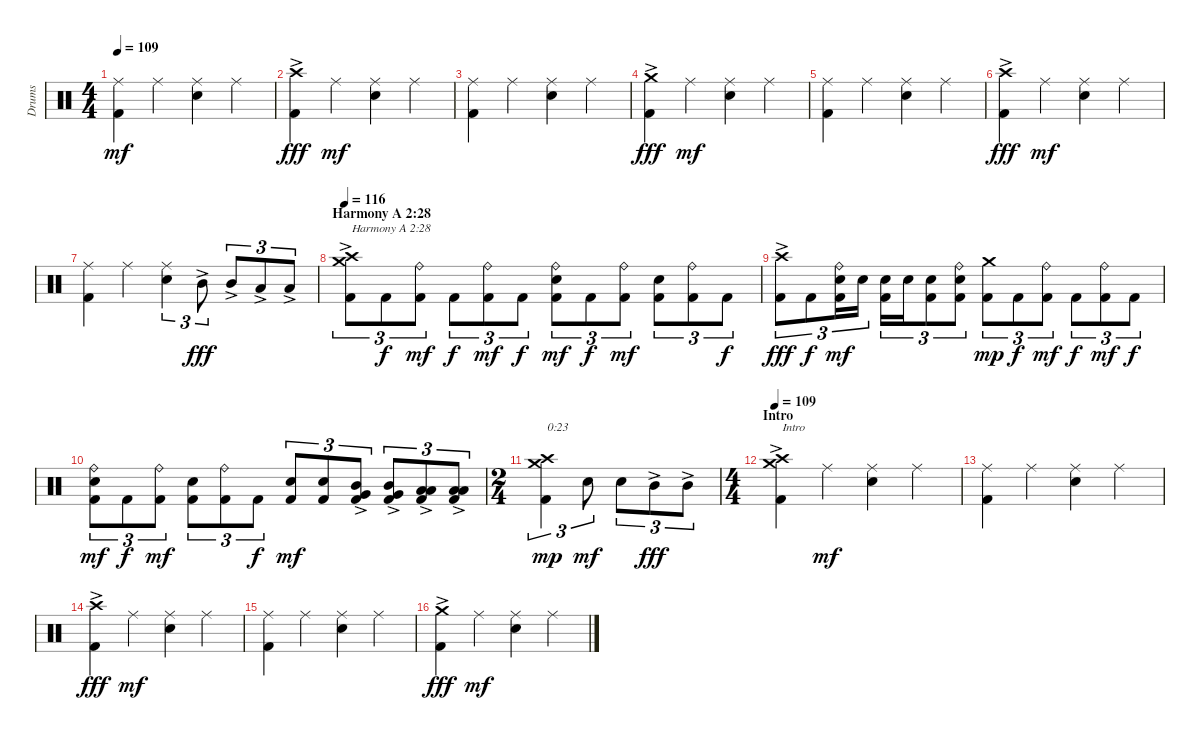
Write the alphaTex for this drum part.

\track ("Drums" "Drums") {instrument percussion}
\staff {score}
\articulation defaults
\ts (4 4)
\tempo 109
\clef neutral
\ks c
("Kick (hit) 2" "Ride (middle)").4{dy mf} "Ride (middle)".4 ("Electric Snare (hit)" "Ride (middle)").4 "Ride (middle)".4 |
("Kick (hit) 2" "Crash high (hit)"{ac}).4{dy fff} "Ride (middle)".4{dy mf} ("Electric Snare (hit)" "Ride (middle)").4 "Ride (middle)".4 |
("Kick (hit) 2" "Ride (middle)").4 "Ride (middle)".4 ("Electric Snare (hit)" "Ride (middle)").4 "Ride (middle)".4 |
("Kick (hit) 2" "Crash medium (hit)"{ac}).4{dy fff} "Ride (middle)".4{dy mf} ("Electric Snare (hit)" "Ride (middle)").4 "Ride (middle)".4 |
("Kick (hit) 2" "Ride (middle)").4 "Ride (middle)".4 ("Electric Snare (hit)" "Ride (middle)").4 "Ride (middle)".4 |
("Kick (hit) 2" "Crash high (hit)"{ac}).4{dy fff} "Ride (middle)".4{dy mf} ("Electric Snare (hit)" "Ride (middle)").4 "Ride (middle)".4 |
("Kick (hit) 2" "Ride (middle)").4 "Ride (middle)".4 ("Electric Snare (hit)" "Ride (middle)").4{tu (3 2)} "Mid Tom (hit)"{ac}.8{tu (3 2) dy fff} "Mid Tom (hit)"{ac}.8{tu (3 2)} "Low Tom (hit)"{ac}.8{tu (3 2)} "Low Tom (hit)"{ac}.8{tu (3 2)} |
\section ("" "Harmony A 2:28")
\tempo 116
("Kick (hit) 2" "Crash medium (hit)"{ac} "Crash high (hit)"{ac}).8{tu (3 2) txt "Harmony A 2:28"} "Kick (hit) 2".8{tu (3 2) dy f} ("Kick (hit) 2" "Ride (bell)").8{tu (3 2) dy mf} "Kick (hit) 2".8{tu (3 2) dy f} ("Kick (hit) 2" "Ride (bell)").8{tu (3 2) dy mf} "Kick (hit) 2".8{tu (3 2) dy f} ("Kick (hit) 2" "Electric Snare (hit)" "Ride (bell)").8{tu (3 2) dy mf} "Kick (hit) 2".8{tu (3 2) dy f} ("Kick (hit) 2" "Ride (bell)").8{tu (3 2) dy mf} ("Kick (hit) 2" "Electric Snare (hit)").8{tu (3 2)} ("Kick (hit) 2" "Ride (bell)").8{tu (3 2)} "Kick (hit) 2".8{tu (3 2) dy f} |
("Kick (hit) 2" "Crash high (hit)"{ac}).8{tu (3 2) dy fff} "Kick (hit) 2".8{tu (3 2) dy f} ("Kick (hit) 2" "Electric Snare (hit)" "Ride (bell)").16{tu (3 2) dy mf} "Electric Snare (hit)".16{tu (3 2)} ("Kick (hit) 2" "Electric Snare (hit)").16{tu (3 2)} "Electric Snare (hit)".16{tu (3 2)} ("Kick (hit) 2" "Electric Snare (hit)").8{tu (3 2)} ("Kick (hit) 2" "Electric Snare (hit)" "Ride (bell)").8{tu (3 2)} ("Kick (hit) 2" "Crash medium (hit)").8{tu (3 2) dy mp} "Kick (hit) 2".8{tu (3 2) dy f} ("Kick (hit) 2" "Ride (bell)").8{tu (3 2) dy mf} "Kick (hit) 2".8{tu (3 2) dy f} ("Kick (hit) 2" "Ride (bell)").8{tu (3 2) dy mf} "Kick (hit) 2".8{tu (3 2) dy f} |
("Kick (hit) 2" "Electric Snare (hit)" "Ride (bell)").8{tu (3 2) dy mf} "Kick (hit) 2".8{tu (3 2) dy f} ("Kick (hit) 2" "Ride (bell)").8{tu (3 2) dy mf} ("Kick (hit) 2" "Electric Snare (hit)").8{tu (3 2)} ("Kick (hit) 2" "Ride (bell)").8{tu (3 2)} "Kick (hit) 2".8{tu (3 2) dy f} ("Kick (hit) 2" "Electric Snare (hit)").8{tu (3 2) dy mf} ("Kick (hit) 2" "Electric Snare (hit)").8{tu (3 2)} ("Kick (hit) 2" "Mid Tom (hit)"{ac} "Very Low Tom (hit)").8{tu (3 2)} ("Kick (hit) 2" "Mid Tom (hit)"{ac} "Very Low Tom (hit)").8{tu (3 2)} ("Kick (hit) 2" "Low Tom (hit)"{ac} "Low Floor Tom (hit)"{ac}).8{tu (3 2)} ("Kick (hit) 2" "Low Tom (hit)"{ac} "Low Floor Tom (hit)"{ac}).8{tu (3 2)} |
\ts (2 4)
("Kick (hit) 2" "Crash high (hit)" "Crash medium (hit)").4{tu (3 2) txt "0:23" dy mp} "Electric Snare (hit)".8{tu (3 2) dy mf} "Electric Snare (hit)".8{tu (3 2)} "Mid Tom (hit)"{ac}.8{tu (3 2) dy fff} "Mid Tom (hit)"{ac}.8{tu (3 2)} |
\ts (4 4)
\section ("" "Intro")
\tempo 109
("Kick (hit) 2" "Crash high (hit)"{ac} "Crash medium (hit)"{ac}).4{txt "Intro"} "Ride (middle)".4{dy mf} ("Electric Snare (hit)" "Ride (middle)").4 "Ride (middle)".4 |
("Kick (hit) 2" "Ride (middle)").4 "Ride (middle)".4 ("Electric Snare (hit)" "Ride (middle)").4 "Ride (middle)".4 |
("Kick (hit) 2" "Crash high (hit)"{ac}).4{dy fff} "Ride (middle)".4{dy mf} ("Electric Snare (hit)" "Ride (middle)").4 "Ride (middle)".4 |
("Kick (hit) 2" "Ride (middle)").4 "Ride (middle)".4 ("Electric Snare (hit)" "Ride (middle)").4 "Ride (middle)".4 |
("Kick (hit) 2" "Crash medium (hit)"{ac}).4{dy fff} "Ride (middle)".4{dy mf} ("Electric Snare (hit)" "Ride (middle)").4 "Ride (middle)".4
